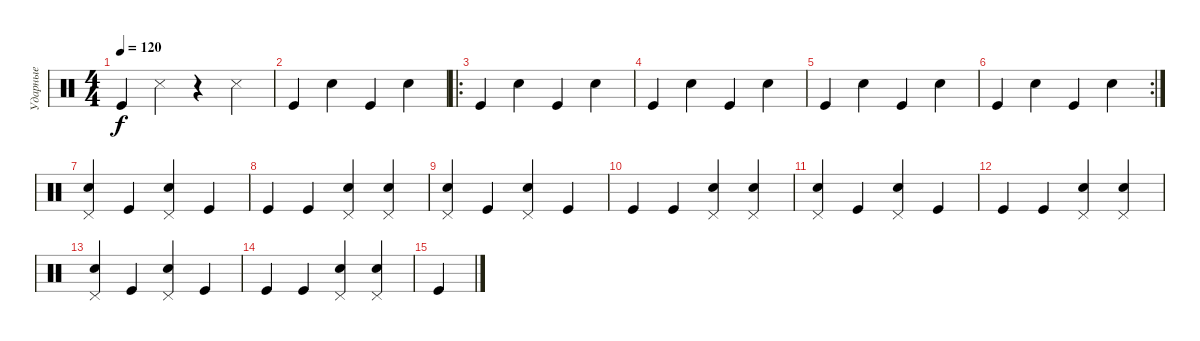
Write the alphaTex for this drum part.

\track ("Ударные" "Ударные") {instrument percussion}
\staff {score}
\articulation defaults
\ts (4 4)
\tempo 120
\clef neutral
\ks c "Kick (hit)".4{dy f} "Snare (side stick) 3".4
r.4 "Snare (side stick) 3".4 |
"Kick (hit)".4 "Snare (hit) 2".4 "Kick (hit)".4 "Snare (hit) 2".4 |
\ro "Kick (hit)".4 "Snare (hit) 2".4 "Kick (hit)".4 "Snare (hit) 2".4
|
"Kick (hit)".4 "Snare (hit) 2".4 "Kick (hit)".4 "Snare (hit) 2".4 |
"Kick (hit)".4 "Snare (hit) 2".4 "Kick (hit)".4 "Snare (hit) 2".4 |
\rc 2 "Kick (hit)".4 "Snare (hit) 2".4 "Kick (hit)".4 "Snare (hit) 2".4
|
("Electric Snare (hit)" "Pedal Hi-Hat (hit)").4 "Kick (hit)".4 ("Electric Snare (hit)" "Pedal Hi-Hat (hit)").4 "Kick (hit)".4 |
"Kick (hit)".4 "Kick (hit)".4 ("Electric Snare (hit)" "Pedal Hi-Hat (hit)").4 ("Electric Snare (hit)" "Pedal Hi-Hat (hit)").4 |
("Electric Snare (hit)" "Pedal Hi-Hat (hit)").4 "Kick (hit)".4 ("Electric Snare (hit)" "Pedal Hi-Hat (hit)").4 "Kick (hit)".4 |
"Kick (hit)".4 "Kick (hit)".4 ("Electric Snare (hit)" "Pedal Hi-Hat (hit)").4 ("Electric Snare (hit)" "Pedal Hi-Hat (hit)").4 |
("Electric Snare (hit)" "Pedal Hi-Hat (hit)").4 "Kick (hit)".4 ("Electric Snare (hit)" "Pedal Hi-Hat (hit)").4 "Kick (hit)".4 |
"Kick (hit)".4 "Kick (hit)".4 ("Electric Snare (hit)" "Pedal Hi-Hat (hit)").4 ("Electric Snare (hit)" "Pedal Hi-Hat (hit)").4 |
("Electric Snare (hit)" "Pedal Hi-Hat (hit)").4 "Kick (hit)".4 ("Electric Snare (hit)" "Pedal Hi-Hat (hit)").4 "Kick (hit)".4 |
"Kick (hit)".4 "Kick (hit)".4 ("Electric Snare (hit)" "Pedal Hi-Hat (hit)").4 ("Electric Snare (hit)" "Pedal Hi-Hat (hit)").4 |
"Kick (hit)".4
